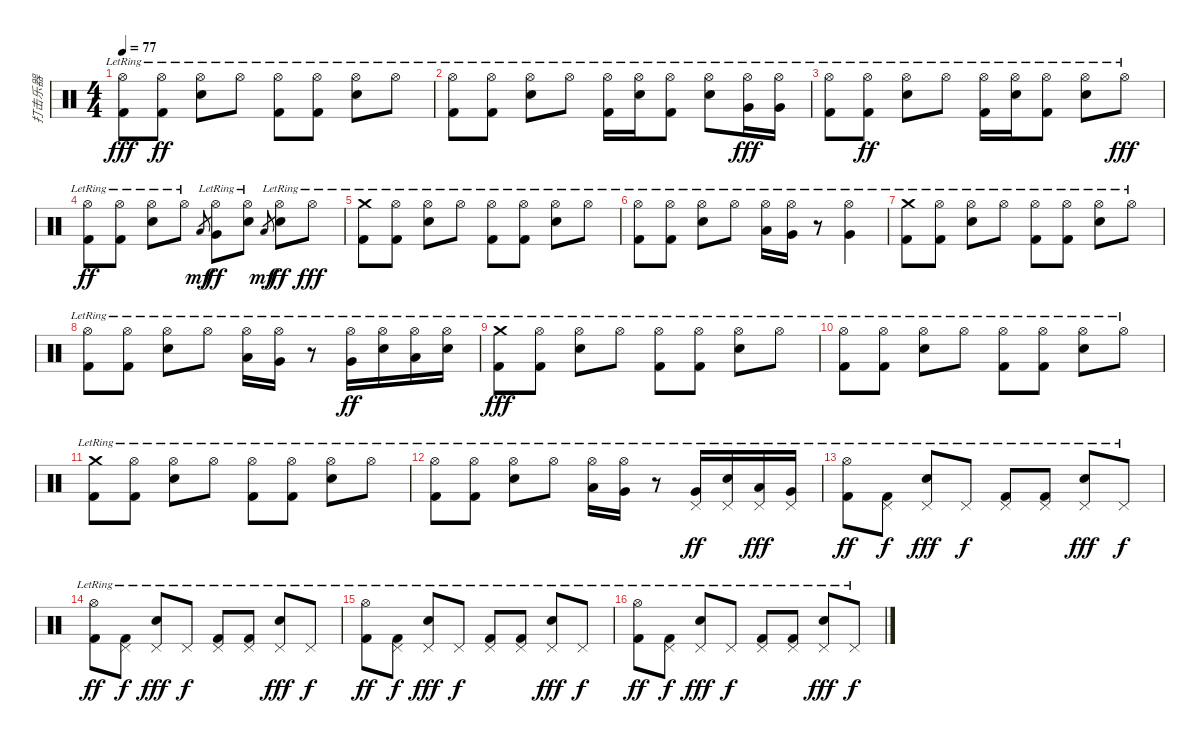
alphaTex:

\track ("打击乐器" "打击乐器") {instrument percussion}
\staff {score}
\articulation defaults
\ts (4 4)
\tempo 77
\clef neutral
\ks c
("Kick (hit) 2"{lr} "Hi-Hat (open)"{lr}).8{dy fff} ("Kick (hit) 2"{lr} "Hi-Hat (open)"{lr}).8{dy ff} ("Snare (hit) 2"{lr} "Hi-Hat (open)"{lr}).8 "Hi-Hat (open)"{lr}.8 ("Kick (hit) 2"{lr} "Hi-Hat (open)"{lr}).8 ("Kick (hit) 2"{lr} "Hi-Hat (open)"{lr}).8 ("Snare (hit) 2"{lr} "Hi-Hat (open)"{lr}).8 "Hi-Hat (open)"{lr}.8 |
("Kick (hit) 2"{lr} "Hi-Hat (open)"{lr}).8 ("Kick (hit) 2"{lr} "Hi-Hat (open)"{lr}).8 ("Snare (hit) 2"{lr} "Hi-Hat (open)"{lr}).8 "Hi-Hat (open)"{lr}.8 ("Kick (hit) 2"{lr} "Hi-Hat (open)"{lr}).16 ("Snare (hit) 2"{lr} "Hi-Hat (open)"{lr}).16 ("Kick (hit) 2"{lr} "Hi-Hat (open)"{lr}).8 ("Snare (hit) 2"{lr} "Hi-Hat (open)"{lr}).8 ("Very Low Tom (hit)"{lr} "Hi-Hat (open)"{lr}).16{dy fff} ("Very Low Tom (hit)"{lr} "Hi-Hat (open)"{lr}).16 |
("Kick (hit) 2"{lr} "Hi-Hat (open)"{lr}).8 ("Kick (hit) 2"{lr} "Hi-Hat (open)"{lr}).8{dy ff} ("Snare (hit) 2"{lr} "Hi-Hat (open)"{lr}).8 "Hi-Hat (open)"{lr}.8 ("Kick (hit) 2"{lr} "Hi-Hat (open)"{lr}).16 ("Snare (hit) 2"{lr} "Hi-Hat (open)"{lr}).16 ("Kick (hit) 2"{lr} "Hi-Hat (open)"{lr}).8 ("Snare (hit) 2"{lr} "Hi-Hat (open)"{lr}).8 "Hi-Hat (open)"{lr}.8{dy fff} |
("Kick (hit) 2"{lr} "Hi-Hat (open)"{lr}).8{dy ff} ("Kick (hit) 2"{lr} "Hi-Hat (open)"{lr}).8 ("Snare (hit) 2"{lr} "Hi-Hat (open)"{lr}).8 "Hi-Hat (open)"{lr}.8 "Low Floor Tom (hit)".8{gr dy mf} ("Very Low Tom (hit)"{lr} "Hi-Hat (open)"{lr}).8{dy ff} ("Snare (hit) 2"{lr} "Hi-Hat (open)"{lr}).8 "Low Floor Tom (hit)".8{gr dy mf} ("Snare (hit) 2"{lr} "Hi-Hat (open)"{lr}).8{dy ff} "Hi-Hat (open)"{lr}.8{dy fff} |
("Kick (hit) 2"{lr} "Crash medium (hit)"{lr}).8 ("Kick (hit) 2"{lr} "Hi-Hat (open)"{lr}).8 ("Snare (hit) 2"{lr} "Hi-Hat (open)"{lr}).8 "Hi-Hat (open)"{lr}.8 ("Kick (hit) 2"{lr} "Hi-Hat (open)"{lr}).8 ("Kick (hit) 2"{lr} "Hi-Hat (open)"{lr}).8 ("Electric Snare (hit)"{lr} "Hi-Hat (open)"{lr}).8 "Hi-Hat (open)"{lr}.8 |
("Kick (hit) 2"{lr} "Hi-Hat (open)"{lr}).8 ("Kick (hit) 2"{lr} "Hi-Hat (open)"{lr}).8 ("Snare (hit) 2"{lr} "Hi-Hat (open)"{lr}).8 "Hi-Hat (open)"{lr}.8 ("Low Floor Tom (hit)"{lr} "Hi-Hat (open)"{lr}).16 ("Very Low Tom (hit)"{lr} "Hi-Hat (open)"{lr}).16 r.8 ("Very Low Tom (hit)"{lr} "Hi-Hat (open)"{lr}).4 |
("Kick (hit) 2"{lr} "Crash medium (hit)"{lr}).8 ("Kick (hit) 2"{lr} "Hi-Hat (open)"{lr}).8 ("Snare (hit) 2"{lr} "Hi-Hat (open)"{lr}).8 "Hi-Hat (open)"{lr}.8 ("Kick (hit) 2"{lr} "Hi-Hat (open)"{lr}).8 ("Kick (hit) 2"{lr} "Hi-Hat (open)"{lr}).8 ("Electric Snare (hit)"{lr} "Hi-Hat (open)"{lr}).8 "Hi-Hat (open)"{lr}.8 |
("Kick (hit) 2"{lr} "Hi-Hat (open)"{lr}).8 ("Kick (hit) 2"{lr} "Hi-Hat (open)"{lr}).8 ("Snare (hit) 2"{lr} "Hi-Hat (open)"{lr}).8 "Hi-Hat (open)"{lr}.8 ("Low Floor Tom (hit)"{lr} "Hi-Hat (open)"{lr}).16 ("Very Low Tom (hit)"{lr} "Hi-Hat (open)"{lr}).16 r.8 ("Very Low Tom (hit)"{lr} "Hi-Hat (open)"{lr}).16{dy ff} ("Electric Snare (hit)"{lr} "Hi-Hat (open)"{lr}).16 ("Low Floor Tom (hit)"{lr} "Hi-Hat (open)"{lr}).16 ("Electric Snare (hit)"{lr} "Hi-Hat (open)"{lr}).16 |
("Kick (hit) 2"{lr} "Crash medium (hit)"{lr}).8{dy fff} ("Kick (hit) 2"{lr} "Hi-Hat (open)"{lr}).8 ("Snare (hit) 2"{lr} "Hi-Hat (open)"{lr}).8 "Hi-Hat (open)"{lr}.8 ("Kick (hit) 2"{lr} "Hi-Hat (open)"{lr}).8 ("Kick (hit) 2"{lr} "Hi-Hat (open)"{lr}).8 ("Electric Snare (hit)"{lr} "Hi-Hat (open)"{lr}).8 "Hi-Hat (open)"{lr}.8 |
("Kick (hit) 2"{lr} "Hi-Hat (open)"{lr}).8 ("Kick (hit) 2"{lr} "Hi-Hat (open)"{lr}).8 ("Snare (hit) 2"{lr} "Hi-Hat (open)"{lr}).8 "Hi-Hat (open)"{lr}.8 ("Kick (hit) 2"{lr} "Hi-Hat (open)"{lr}).8 ("Kick (hit) 2"{lr} "Hi-Hat (open)"{lr}).8 ("Electric Snare (hit)"{lr} "Hi-Hat (open)"{lr}).8 "Hi-Hat (open)"{lr}.8 |
("Kick (hit) 2"{lr} "Crash medium (hit)"{lr}).8 ("Kick (hit) 2"{lr} "Hi-Hat (open)"{lr}).8 ("Snare (hit) 2"{lr} "Hi-Hat (open)"{lr}).8 "Hi-Hat (open)"{lr}.8 ("Kick (hit) 2"{lr} "Hi-Hat (open)"{lr}).8 ("Kick (hit) 2"{lr} "Hi-Hat (open)"{lr}).8 ("Electric Snare (hit)"{lr} "Hi-Hat (open)"{lr}).8 "Hi-Hat (open)"{lr}.8 |
("Kick (hit) 2"{lr} "Hi-Hat (open)"{lr}).8 ("Kick (hit) 2"{lr} "Hi-Hat (open)"{lr}).8 ("Snare (hit) 2"{lr} "Hi-Hat (open)"{lr}).8 "Hi-Hat (open)"{lr}.8 ("Low Floor Tom (hit)"{lr} "Hi-Hat (open)"{lr}).16 ("Very Low Tom (hit)"{lr} "Hi-Hat (open)"{lr}).16 r.8 ("Very Low Tom (hit)"{lr} "Pedal Hi-Hat (hit)"{lr}).16{dy ff} ("Electric Snare (hit)"{lr} "Pedal Hi-Hat (hit)"{lr}).16 ("Low Floor Tom (hit)"{lr} "Pedal Hi-Hat (hit)"{lr}).16{dy fff} ("Very Low Tom (hit)"{lr} "Pedal Hi-Hat (hit)"{lr}).16 |
("Kick (hit) 2"{lr} "Hi-Hat (open)"{lr}).8{dy ff} ("Kick (hit) 2"{lr} "Pedal Hi-Hat (hit)"{lr}).8{dy f} ("Snare (hit) 2"{lr} "Pedal Hi-Hat (hit)"{lr}).8{dy fff} "Pedal Hi-Hat (hit)"{lr}.8{dy f} ("Kick (hit) 2"{lr} "Pedal Hi-Hat (hit)"{lr}).8 ("Kick (hit) 2"{lr} "Pedal Hi-Hat (hit)"{lr}).8 ("Electric Snare (hit)"{lr} "Pedal Hi-Hat (hit)"{lr}).8{dy fff} "Pedal Hi-Hat (hit)"{lr}.8{dy f} |
("Kick (hit) 2"{lr} "Hi-Hat (open)"{lr}).8{dy ff} ("Kick (hit) 2"{lr} "Pedal Hi-Hat (hit)"{lr}).8{dy f} ("Snare (hit) 2"{lr} "Pedal Hi-Hat (hit)"{lr}).8{dy fff} "Pedal Hi-Hat (hit)"{lr}.8{dy f} ("Kick (hit) 2"{lr} "Pedal Hi-Hat (hit)"{lr}).8 ("Kick (hit) 2"{lr} "Pedal Hi-Hat (hit)"{lr}).8 ("Electric Snare (hit)"{lr} "Pedal Hi-Hat (hit)"{lr}).8{dy fff} "Pedal Hi-Hat (hit)"{lr}.8{dy f} |
("Kick (hit) 2"{lr} "Hi-Hat (open)"{lr}).8{dy ff} ("Kick (hit) 2"{lr} "Pedal Hi-Hat (hit)"{lr}).8{dy f} ("Snare (hit) 2"{lr} "Pedal Hi-Hat (hit)"{lr}).8{dy fff} "Pedal Hi-Hat (hit)"{lr}.8{dy f} ("Kick (hit) 2"{lr} "Pedal Hi-Hat (hit)"{lr}).8 ("Kick (hit) 2"{lr} "Pedal Hi-Hat (hit)"{lr}).8 ("Electric Snare (hit)"{lr} "Pedal Hi-Hat (hit)"{lr}).8{dy fff} "Pedal Hi-Hat (hit)"{lr}.8{dy f} |
("Kick (hit) 2"{lr} "Hi-Hat (open)"{lr}).8{dy ff} ("Kick (hit) 2"{lr} "Pedal Hi-Hat (hit)"{lr}).8{dy f} ("Snare (hit) 2"{lr} "Pedal Hi-Hat (hit)"{lr}).8{dy fff} "Pedal Hi-Hat (hit)"{lr}.8{dy f} ("Kick (hit) 2"{lr} "Pedal Hi-Hat (hit)"{lr}).8 ("Kick (hit) 2"{lr} "Pedal Hi-Hat (hit)"{lr}).8 ("Electric Snare (hit)"{lr} "Pedal Hi-Hat (hit)"{lr}).8{dy fff} "Pedal Hi-Hat (hit)"{lr}.8{dy f}
